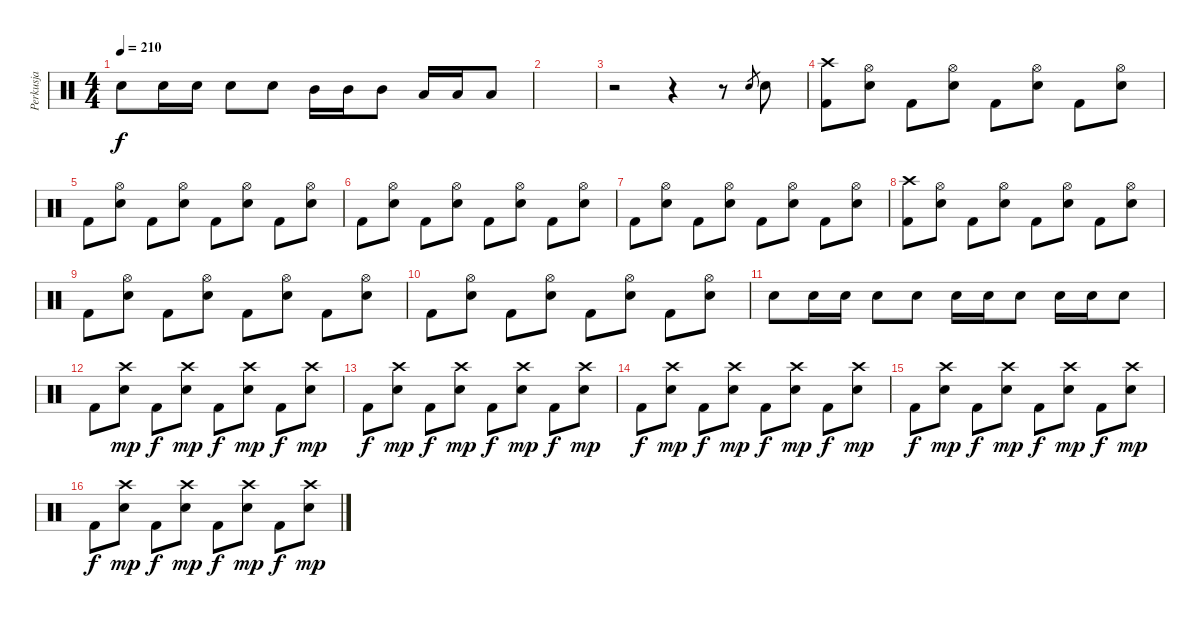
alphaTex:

\track ("Perkusja" "Perkusja") {instrument percussion}
\staff {score}
\articulation defaults
\ts (4 4)
\tempo 210
\clef neutral
\ks c "Electric Snare (hit)".8{dy f} "Electric Snare (hit)".16 "Electric Snare (hit)".16 "Electric Snare (hit)".8 "Electric Snare (hit)".8 "Mid Tom (hit)".16 "Mid Tom (hit)".16 "Mid Tom (hit)".8 "Low Tom (hit)".16 "Low Tom (hit)".16 "Low Tom (hit)".8
|
|
r.2 r.4 r.8 "Electric Snare (hit)".8{gr} "Electric Snare (hit)".8 |
("Crash high (hit)" "Kick (hit) 2").8 ("Hi-Hat (open)" "Electric Snare (hit)").8 "Kick (hit) 2".8 ("Hi-Hat (open)" "Electric Snare (hit)").8 "Kick (hit) 2".8 ("Hi-Hat (open)" "Electric Snare (hit)").8 "Kick (hit) 2".8 ("Hi-Hat (open)" "Electric Snare (hit)").8 |
"Kick (hit) 2".8 ("Hi-Hat (open)" "Electric Snare (hit)").8 "Kick (hit) 2".8 ("Hi-Hat (open)" "Electric Snare (hit)").8 "Kick (hit) 2".8 ("Hi-Hat (open)" "Electric Snare (hit)").8 "Kick (hit) 2".8 ("Hi-Hat (open)" "Electric Snare (hit)").8 |
"Kick (hit) 2".8 ("Hi-Hat (open)" "Electric Snare (hit)").8 "Kick (hit) 2".8 ("Hi-Hat (open)" "Electric Snare (hit)").8 "Kick (hit) 2".8 ("Hi-Hat (open)" "Electric Snare (hit)").8 "Kick (hit) 2".8 ("Hi-Hat (open)" "Electric Snare (hit)").8 |
"Kick (hit) 2".8 ("Hi-Hat (open)" "Electric Snare (hit)").8 "Kick (hit) 2".8 ("Hi-Hat (open)" "Electric Snare (hit)").8 "Kick (hit) 2".8 ("Hi-Hat (open)" "Electric Snare (hit)").8 "Kick (hit) 2".8 ("Hi-Hat (open)" "Electric Snare (hit)").8 |
("Crash high (hit)" "Kick (hit) 2").8 ("Hi-Hat (open)" "Electric Snare (hit)").8 "Kick (hit) 2".8 ("Hi-Hat (open)" "Electric Snare (hit)").8 "Kick (hit) 2".8 ("Hi-Hat (open)" "Electric Snare (hit)").8 "Kick (hit) 2".8 ("Hi-Hat (open)" "Electric Snare (hit)").8 |
"Kick (hit) 2".8 ("Hi-Hat (open)" "Electric Snare (hit)").8 "Kick (hit) 2".8 ("Hi-Hat (open)" "Electric Snare (hit)").8 "Kick (hit) 2".8 ("Hi-Hat (open)" "Electric Snare (hit)").8 "Kick (hit) 2".8 ("Hi-Hat (open)" "Electric Snare (hit)").8 |
"Kick (hit) 2".8 ("Hi-Hat (open)" "Electric Snare (hit)").8 "Kick (hit) 2".8 ("Hi-Hat (open)" "Electric Snare (hit)").8 "Kick (hit) 2".8 ("Hi-Hat (open)" "Electric Snare (hit)").8 "Kick (hit) 2".8 ("Hi-Hat (open)" "Electric Snare (hit)").8 |
"Electric Snare (hit)".8 "Electric Snare (hit)".16 "Electric Snare (hit)".16 "Electric Snare (hit)".8 "Electric Snare (hit)".8 "Electric Snare (hit)".16 "Electric Snare (hit)".16 "Electric Snare (hit)".8 "Electric Snare (hit)".16 "Electric Snare (hit)".16 "Electric Snare (hit)".8 |
"Kick (hit) 2".8 ("Crash high (hit)" "Electric Snare (hit)").8{dy mp} "Kick (hit) 2".8{dy f} ("Crash high (hit)" "Electric Snare (hit)").8{dy mp} "Kick (hit) 2".8{dy f} ("Crash high (hit)" "Electric Snare (hit)").8{dy mp} "Kick (hit) 2".8{dy f} ("Crash high (hit)" "Electric Snare (hit)").8{dy mp} |
"Kick (hit) 2".8{dy f} ("Crash high (hit)" "Electric Snare (hit)").8{dy mp} "Kick (hit) 2".8{dy f} ("Crash high (hit)" "Electric Snare (hit)").8{dy mp} "Kick (hit) 2".8{dy f} ("Crash high (hit)" "Electric Snare (hit)").8{dy mp} "Kick (hit) 2".8{dy f} ("Crash high (hit)" "Electric Snare (hit)").8{dy mp} |
"Kick (hit) 2".8{dy f} ("Crash high (hit)" "Electric Snare (hit)").8{dy mp} "Kick (hit) 2".8{dy f} ("Crash high (hit)" "Electric Snare (hit)").8{dy mp} "Kick (hit) 2".8{dy f} ("Crash high (hit)" "Electric Snare (hit)").8{dy mp} "Kick (hit) 2".8{dy f} ("Crash high (hit)" "Electric Snare (hit)").8{dy mp} |
"Kick (hit) 2".8{dy f} ("Crash high (hit)" "Electric Snare (hit)").8{dy mp} "Kick (hit) 2".8{dy f} ("Crash high (hit)" "Electric Snare (hit)").8{dy mp} "Kick (hit) 2".8{dy f} ("Crash high (hit)" "Electric Snare (hit)").8{dy mp} "Kick (hit) 2".8{dy f} ("Crash high (hit)" "Electric Snare (hit)").8{dy mp} |
"Kick (hit) 2".8{dy f} ("Crash high (hit)" "Electric Snare (hit)").8{dy mp} "Kick (hit) 2".8{dy f} ("Crash high (hit)" "Electric Snare (hit)").8{dy mp} "Kick (hit) 2".8{dy f} ("Crash high (hit)" "Electric Snare (hit)").8{dy mp} "Kick (hit) 2".8{dy f} ("Crash high (hit)" "Electric Snare (hit)").8{dy mp}
